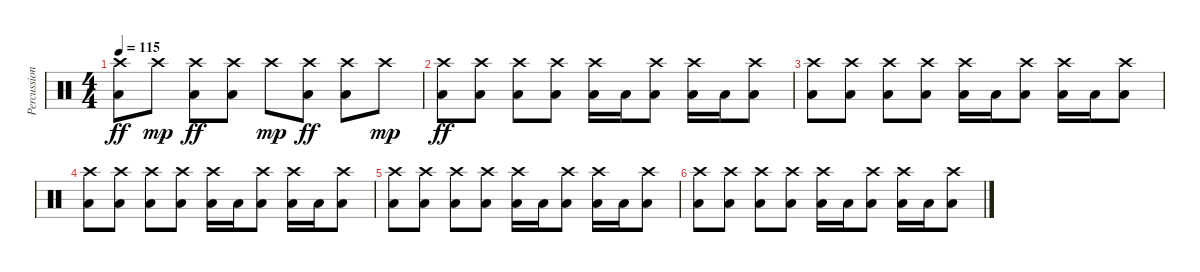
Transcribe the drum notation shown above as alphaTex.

\track ("Percussion" "Percussion") {instrument percussion}
\staff {score}
\articulation defaults
\ts (4 4)
\tempo 115
\clef neutral
\ks c
("Crash high (hit)" "Low Floor Tom (hit)").8{dy ff} "Crash high (hit)".8{dy mp} ("Crash high (hit)" "Low Floor Tom (hit)").8{dy ff} ("Crash high (hit)" "Low Floor Tom (hit)").8 "Crash high (hit)".8{dy mp} ("Crash high (hit)" "Low Floor Tom (hit)").8{dy ff} ("Crash high (hit)" "Low Floor Tom (hit)").8 "Crash high (hit)".8{dy mp} |
("Crash high (hit)" "Low Floor Tom (hit)").8{dy ff volume 0} ("Crash high (hit)" "Low Floor Tom (hit)").8 ("Crash high (hit)" "Low Floor Tom (hit)").8 ("Crash high (hit)" "Low Floor Tom (hit)").8 ("Crash high (hit)" "Low Floor Tom (hit)").16 "Low Floor Tom (hit)".16 ("Crash high (hit)" "Low Floor Tom (hit)").8 ("Crash high (hit)" "Low Floor Tom (hit)").16 "Low Floor Tom (hit)".16 ("Crash high (hit)" "Low Floor Tom (hit)").8 |
("Crash high (hit)" "Low Floor Tom (hit)").8 ("Crash high (hit)" "Low Floor Tom (hit)").8 ("Crash high (hit)" "Low Floor Tom (hit)").8 ("Crash high (hit)" "Low Floor Tom (hit)").8 ("Crash high (hit)" "Low Floor Tom (hit)").16 "Low Floor Tom (hit)".16 ("Crash high (hit)" "Low Floor Tom (hit)").8 ("Crash high (hit)" "Low Floor Tom (hit)").16 "Low Floor Tom (hit)".16 ("Crash high (hit)" "Low Floor Tom (hit)").8 |
("Crash high (hit)" "Low Floor Tom (hit)").8 ("Crash high (hit)" "Low Floor Tom (hit)").8 ("Crash high (hit)" "Low Floor Tom (hit)").8 ("Crash high (hit)" "Low Floor Tom (hit)").8 ("Crash high (hit)" "Low Floor Tom (hit)").16 "Low Floor Tom (hit)".16 ("Crash high (hit)" "Low Floor Tom (hit)").8 ("Crash high (hit)" "Low Floor Tom (hit)").16 "Low Floor Tom (hit)".16 ("Crash high (hit)" "Low Floor Tom (hit)").8 |
("Crash high (hit)" "Low Floor Tom (hit)").8 ("Crash high (hit)" "Low Floor Tom (hit)").8 ("Crash high (hit)" "Low Floor Tom (hit)").8 ("Crash high (hit)" "Low Floor Tom (hit)").8 ("Crash high (hit)" "Low Floor Tom (hit)").16 "Low Floor Tom (hit)".16 ("Crash high (hit)" "Low Floor Tom (hit)").8 ("Crash high (hit)" "Low Floor Tom (hit)").16 "Low Floor Tom (hit)".16 ("Crash high (hit)" "Low Floor Tom (hit)").8 |
("Crash high (hit)" "Low Floor Tom (hit)").8 ("Crash high (hit)" "Low Floor Tom (hit)").8 ("Crash high (hit)" "Low Floor Tom (hit)").8 ("Crash high (hit)" "Low Floor Tom (hit)").8 ("Crash high (hit)" "Low Floor Tom (hit)").16 "Low Floor Tom (hit)".16 ("Crash high (hit)" "Low Floor Tom (hit)").8 ("Crash high (hit)" "Low Floor Tom (hit)").16 "Low Floor Tom (hit)".16 ("Crash high (hit)" "Low Floor Tom (hit)").8
